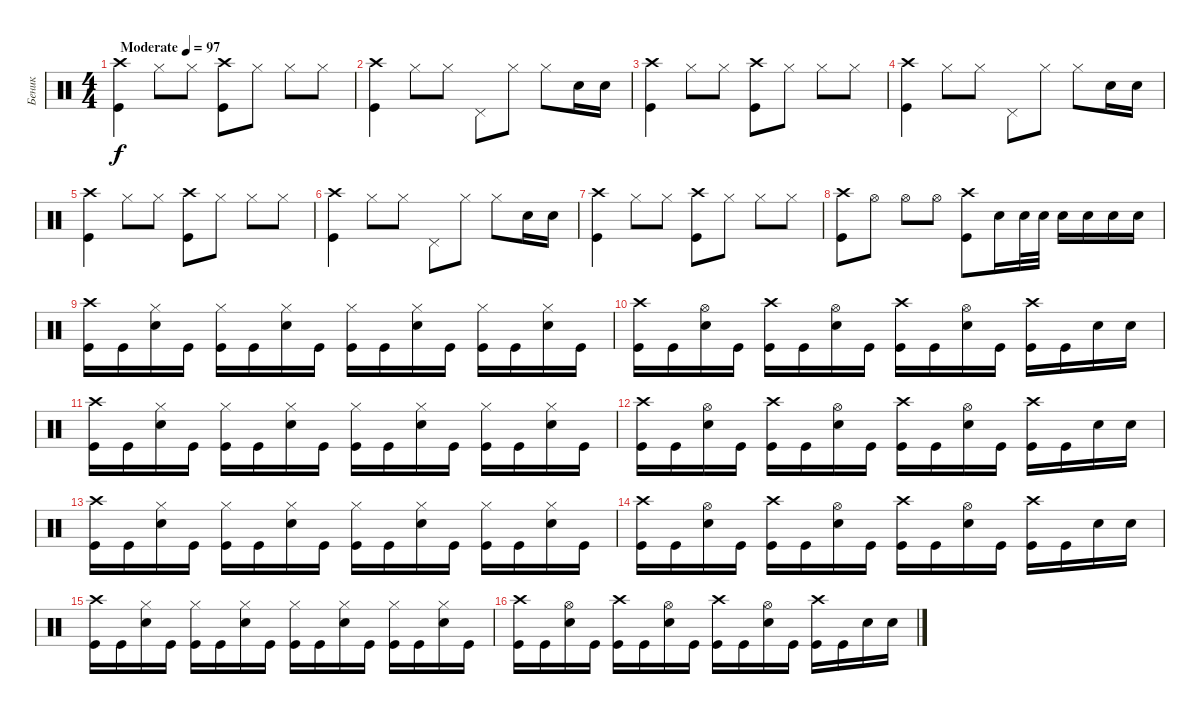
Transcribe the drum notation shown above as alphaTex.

\track ("Беник" "Беник") {instrument percussion}
\staff {score}
\articulation defaults
\ts (4 4)
\tempo (97 "Moderate")
\clef neutral
\ks c
("Kick (hit)" "Crash high (hit)").4{dy f} "Hi-Hat (closed)".8 "Hi-Hat (closed)".8 ("Crash high (hit)" "Kick (hit)").8 "Hi-Hat (closed)".8 "Hi-Hat (closed)".8 "Hi-Hat (closed)".8 |
("Crash high (hit)" "Kick (hit)").4 "Hi-Hat (closed)".8 "Hi-Hat (closed)".8 "Pedal Hi-Hat (hit)".8 "Hi-Hat (closed)".8 "Hi-Hat (closed)".8 "Snare (hit) 2".16 "Snare (hit) 2".16 |
("Kick (hit)" "Crash high (hit)").4 "Hi-Hat (closed)".8 "Hi-Hat (closed)".8 ("Crash high (hit)" "Kick (hit)").8 "Hi-Hat (closed)".8 "Hi-Hat (closed)".8 "Hi-Hat (closed)".8 |
("Crash high (hit)" "Kick (hit)").4 "Hi-Hat (closed)".8 "Hi-Hat (closed)".8 "Pedal Hi-Hat (hit)".8 "Hi-Hat (closed)".8 "Hi-Hat (closed)".8 "Snare (hit) 2".16 "Snare (hit) 2".16 |
("Kick (hit)" "Crash high (hit)").4 "Hi-Hat (closed)".8 "Hi-Hat (closed)".8 ("Crash high (hit)" "Kick (hit)").8 "Hi-Hat (closed)".8 "Hi-Hat (closed)".8 "Hi-Hat (closed)".8 |
("Crash high (hit)" "Kick (hit)").4 "Hi-Hat (closed)".8 "Hi-Hat (closed)".8 "Pedal Hi-Hat (hit)".8 "Hi-Hat (closed)".8 "Hi-Hat (closed)".8 "Snare (hit) 2".16 "Snare (hit) 2".16 |
("Kick (hit)" "Crash high (hit)").4 "Hi-Hat (closed)".8 "Hi-Hat (closed)".8 ("Crash high (hit)" "Kick (hit)").8 "Hi-Hat (closed)".8 "Hi-Hat (closed)".8 "Hi-Hat (closed)".8 |
("Crash high (hit)" "Kick (hit)").8 "Hi-Hat (open)".8 "Hi-Hat (open)".8 "Hi-Hat (open)".8 ("Kick (hit)" "Crash high (hit)").8 "Snare (hit) 2".16 "Snare (hit) 2".32 "Snare (hit) 2".32 "Snare (hit) 2".16 "Snare (hit) 2".16 "Snare (hit) 2".16 "Snare (hit) 2".16 |
("Crash high (hit)" "Kick (hit)").16 "Kick (hit)".16 ("Snare (hit) 2" "Hi-Hat (closed)").16 "Kick (hit)".16 ("Kick (hit)" "Hi-Hat (closed)").16 "Kick (hit)".16 ("Snare (hit) 2" "Hi-Hat (closed)").16 "Kick (hit)".16 ("Kick (hit)" "Hi-Hat (closed)").16 "Kick (hit)".16 ("Snare (hit) 2" "Hi-Hat (closed)").16 "Kick (hit)".16 ("Kick (hit)" "Hi-Hat (closed)").16 "Kick (hit)".16 ("Snare (hit) 2" "Hi-Hat (closed)").16 "Kick (hit)".16 |
("Crash high (hit)" "Kick (hit)").16 "Kick (hit)".16 ("Snare (hit) 2" "Hi-Hat (open)").16 "Kick (hit)".16 ("Kick (hit)" "Crash high (hit)").16 "Kick (hit)".16 ("Snare (hit) 2" "Hi-Hat (open)").16 "Kick (hit)".16 ("Kick (hit)" "Crash high (hit)").16 "Kick (hit)".16 ("Snare (hit) 2" "Hi-Hat (open)").16 "Kick (hit)".16 ("Kick (hit)" "Crash high (hit)").16 "Kick (hit)".16 "Snare (hit) 2".16 "Snare (hit) 2".16 |
("Crash high (hit)" "Kick (hit)").16 "Kick (hit)".16 ("Snare (hit) 2" "Hi-Hat (closed)").16 "Kick (hit)".16 ("Kick (hit)" "Hi-Hat (closed)").16 "Kick (hit)".16 ("Snare (hit) 2" "Hi-Hat (closed)").16 "Kick (hit)".16 ("Kick (hit)" "Hi-Hat (closed)").16 "Kick (hit)".16 ("Snare (hit) 2" "Hi-Hat (closed)").16 "Kick (hit)".16 ("Kick (hit)" "Hi-Hat (closed)").16 "Kick (hit)".16 ("Snare (hit) 2" "Hi-Hat (closed)").16 "Kick (hit)".16 |
("Crash high (hit)" "Kick (hit)").16 "Kick (hit)".16 ("Snare (hit) 2" "Hi-Hat (open)").16 "Kick (hit)".16 ("Kick (hit)" "Crash high (hit)").16 "Kick (hit)".16 ("Snare (hit) 2" "Hi-Hat (open)").16 "Kick (hit)".16 ("Kick (hit)" "Crash high (hit)").16 "Kick (hit)".16 ("Snare (hit) 2" "Hi-Hat (open)").16 "Kick (hit)".16 ("Kick (hit)" "Crash high (hit)").16 "Kick (hit)".16 "Snare (hit) 2".16 "Snare (hit) 2".16 |
("Crash high (hit)" "Kick (hit)").16 "Kick (hit)".16 ("Snare (hit) 2" "Hi-Hat (closed)").16 "Kick (hit)".16 ("Kick (hit)" "Hi-Hat (closed)").16 "Kick (hit)".16 ("Snare (hit) 2" "Hi-Hat (closed)").16 "Kick (hit)".16 ("Kick (hit)" "Hi-Hat (closed)").16 "Kick (hit)".16 ("Snare (hit) 2" "Hi-Hat (closed)").16 "Kick (hit)".16 ("Kick (hit)" "Hi-Hat (closed)").16 "Kick (hit)".16 ("Snare (hit) 2" "Hi-Hat (closed)").16 "Kick (hit)".16 |
("Crash high (hit)" "Kick (hit)").16 "Kick (hit)".16 ("Snare (hit) 2" "Hi-Hat (open)").16 "Kick (hit)".16 ("Kick (hit)" "Crash high (hit)").16 "Kick (hit)".16 ("Snare (hit) 2" "Hi-Hat (open)").16 "Kick (hit)".16 ("Kick (hit)" "Crash high (hit)").16 "Kick (hit)".16 ("Snare (hit) 2" "Hi-Hat (open)").16 "Kick (hit)".16 ("Kick (hit)" "Crash high (hit)").16 "Kick (hit)".16 "Snare (hit) 2".16 "Snare (hit) 2".16 |
("Crash high (hit)" "Kick (hit)").16 "Kick (hit)".16 ("Snare (hit) 2" "Hi-Hat (closed)").16 "Kick (hit)".16 ("Kick (hit)" "Hi-Hat (closed)").16 "Kick (hit)".16 ("Snare (hit) 2" "Hi-Hat (closed)").16 "Kick (hit)".16 ("Kick (hit)" "Hi-Hat (closed)").16 "Kick (hit)".16 ("Snare (hit) 2" "Hi-Hat (closed)").16 "Kick (hit)".16 ("Kick (hit)" "Hi-Hat (closed)").16 "Kick (hit)".16 ("Snare (hit) 2" "Hi-Hat (closed)").16 "Kick (hit)".16 |
("Crash high (hit)" "Kick (hit)").16 "Kick (hit)".16 ("Snare (hit) 2" "Hi-Hat (open)").16 "Kick (hit)".16 ("Kick (hit)" "Crash high (hit)").16 "Kick (hit)".16 ("Snare (hit) 2" "Hi-Hat (open)").16 "Kick (hit)".16 ("Kick (hit)" "Crash high (hit)").16 "Kick (hit)".16 ("Snare (hit) 2" "Hi-Hat (open)").16 "Kick (hit)".16 ("Kick (hit)" "Crash high (hit)").16 "Kick (hit)".16 "Snare (hit) 2".16 "Snare (hit) 2".16
